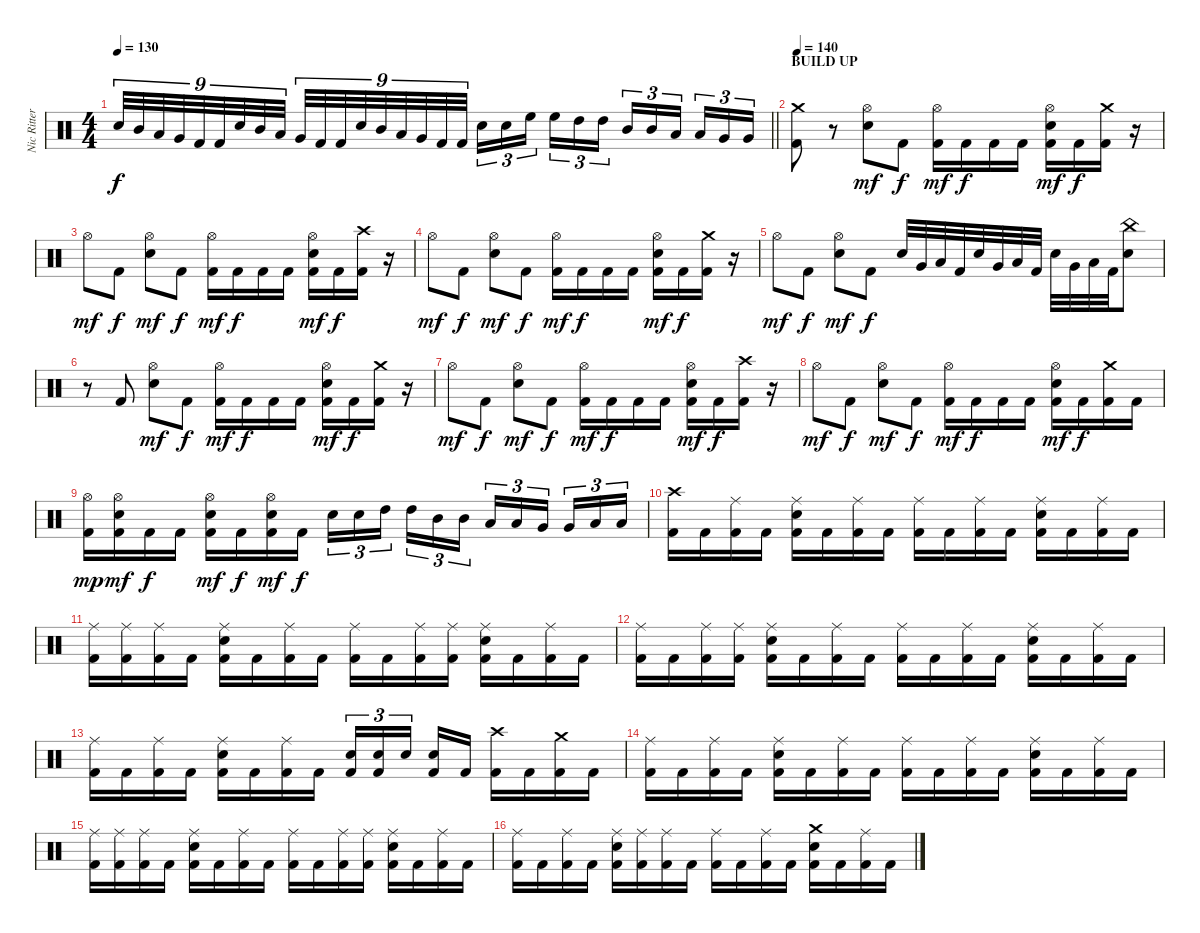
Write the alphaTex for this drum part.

\track ("Nic Ritter" "Nic Ritter") {instrument percussion}
\staff {score}
\articulation defaults
\ts (4 4)
\tempo 130
\clef neutral
\barLineRight lightlight
\ks c "Electric Snare (hit)".32{tu (9 8) dy f} "Mid Tom (hit)".32{tu (9 8)} "Low Tom (hit)".32{tu (9 8)} "Very Low Tom (hit)".32{tu (9 8)} "Kick (hit) 2".32{tu (9 8)} "Kick (hit) 2".32{tu (9 8)} "Electric Snare (hit)".32{tu (9 8)} "Mid Tom (hit)".32{tu (9 8)} "Low Tom (hit)".32{tu (9 8)} "Very Low Tom (hit)".32{tu (9 8)} "Kick (hit) 2".32{tu (9 8)} "Kick (hit) 2".32{tu (9 8)} "Electric Snare (hit)".32{tu (9 8)} "Mid Tom (hit)".32{tu (9 8)} "Low Tom (hit)".32{tu (9 8)} "Very Low Tom (hit)".32{tu (9 8)} "Kick (hit) 2".32{tu (9 8)} "Kick (hit) 2".32{tu (9 8)} "Electric Snare (hit)".16{tu (3 2)} "Electric Snare (hit)".16{tu (3 2)} "High Floor Tom (hit)".16{tu (3 2) beam splitsecondary} "High Floor Tom (hit)".16{tu (3 2)} "High Tom (hit)".16{tu (3 2)} "High Tom (hit)".16{tu (3 2)} "Mid Tom (hit)".16{tu (3 2)} "Mid Tom (hit)".16{tu (3 2)} "Low Tom (hit)".16{tu (3 2) beam splitsecondary} "Low Tom (hit)".16{tu (3 2)} "Very Low Tom (hit)".16{tu (3 2)} "Very Low Tom (hit)".16{tu (3 2)}
|
\section ("" "BUILD UP")
\tempo 140
("Crash medium (hit)" "Kick (hit) 2").8 r.8 ("Hi-Hat (open)" "Electric Snare (hit)").8{dy mf} "Kick (hit) 2".8{dy f} ("Hi-Hat (open)" "Kick (hit) 2").16{dy mf} "Kick (hit) 2".16{dy f} "Kick (hit) 2".16 "Kick (hit) 2".16 ("Hi-Hat (open)" "Electric Snare (hit)" "Kick (hit) 2").16{dy mf} "Kick (hit) 2".16{dy f} ("Crash medium (hit)" "Kick (hit) 2").16 r.16 |
"Hi-Hat (open)".8{dy mf} "Kick (hit) 2".8{dy f} ("Hi-Hat (open)" "Electric Snare (hit)").8{dy mf} "Kick (hit) 2".8{dy f} ("Hi-Hat (open)" "Kick (hit) 2").16{dy mf} "Kick (hit) 2".16{dy f} "Kick (hit) 2".16 "Kick (hit) 2".16 ("Hi-Hat (open)" "Electric Snare (hit)" "Kick (hit) 2").16{dy mf} "Kick (hit) 2".16{dy f} ("Crash high (hit)" "Kick (hit) 2").16 r.16 |
"Hi-Hat (open)".8{dy mf} "Kick (hit) 2".8{dy f} ("Hi-Hat (open)" "Electric Snare (hit)").8{dy mf} "Kick (hit) 2".8{dy f} ("Hi-Hat (open)" "Kick (hit) 2").16{dy mf} "Kick (hit) 2".16{dy f} "Kick (hit) 2".16 "Kick (hit) 2".16 ("Hi-Hat (open)" "Electric Snare (hit)" "Kick (hit) 2").16{dy mf} "Kick (hit) 2".16{dy f} ("Crash medium (hit)" "Kick (hit) 2").16 r.16 |
"Hi-Hat (open)".8{dy mf} "Kick (hit) 2".8{dy f} ("Hi-Hat (open)" "Electric Snare (hit)").8{dy mf} "Kick (hit) 2".8{dy f} "Electric Snare (hit)".32 "Very Low Tom (hit)".32 "Low Floor Tom (hit)".32 "Kick (hit) 2".32 "Electric Snare (hit)".32 "Very Low Tom (hit)".32 "Low Floor Tom (hit)".32 "Kick (hit) 2".32 "Electric Snare (hit)".32 "Very Low Tom (hit)".32 "Low Floor Tom (hit)".32 "Kick (hit) 2".32 ("China (hit)" "Electric Snare (hit)").8 |
r.8 "Kick (hit) 2".8 ("Hi-Hat (open)" "Electric Snare (hit)").8{dy mf} "Kick (hit) 2".8{dy f} ("Hi-Hat (open)" "Kick (hit) 2").16{dy mf} "Kick (hit) 2".16{dy f} "Kick (hit) 2".16 "Kick (hit) 2".16 ("Hi-Hat (open)" "Electric Snare (hit)" "Kick (hit) 2").16{dy mf} "Kick (hit) 2".16{dy f} ("Crash medium (hit)" "Kick (hit) 2").16 r.16 |
"Hi-Hat (open)".8{dy mf} "Kick (hit) 2".8{dy f} ("Hi-Hat (open)" "Electric Snare (hit)").8{dy mf} "Kick (hit) 2".8{dy f} ("Hi-Hat (open)" "Kick (hit) 2").16{dy mf} "Kick (hit) 2".16{dy f} "Kick (hit) 2".16 "Kick (hit) 2".16 ("Hi-Hat (open)" "Electric Snare (hit)" "Kick (hit) 2").16{dy mf} "Kick (hit) 2".16{dy f} ("Crash high (hit)" "Kick (hit) 2").16 r.16 |
"Hi-Hat (open)".8{dy mf} "Kick (hit) 2".8{dy f} ("Hi-Hat (open)" "Electric Snare (hit)").8{dy mf} "Kick (hit) 2".8{dy f} ("Hi-Hat (open)" "Kick (hit) 2").16{dy mf} "Kick (hit) 2".16{dy f} "Kick (hit) 2".16 "Kick (hit) 2".16 ("Hi-Hat (open)" "Electric Snare (hit)" "Kick (hit) 2").16{dy mf} "Kick (hit) 2".16{dy f} ("Crash medium (hit)" "Kick (hit) 2").16 "Kick (hit) 2".16 |
("Hi-Hat (open)" "Kick (hit) 2").16{dy mp} ("Hi-Hat (open)" "Electric Snare (hit)" "Kick (hit) 2").16{dy mf} "Kick (hit) 2".16{dy f} "Kick (hit) 2".16 ("Hi-Hat (open)" "Electric Snare (hit)" "Kick (hit) 2").16{dy mf} "Kick (hit) 2".16{dy f} ("Hi-Hat (open)" "Electric Snare (hit)" "Kick (hit) 2").16{dy mf} "Kick (hit) 2".16{dy f} "Electric Snare (hit)".16{tu (3 2)} "Electric Snare (hit)".16{tu (3 2)} "High Tom (hit)".16{tu (3 2) beam splitsecondary} "High Tom (hit)".16{tu (3 2)} "Mid Tom (hit)".16{tu (3 2)} "Mid Tom (hit)".16{tu (3 2)} "Low Tom (hit)".16{tu (3 2)} "Low Tom (hit)".16{tu (3 2)} "Very Low Tom (hit)".16{tu (3 2) beam splitsecondary} "Very Low Tom (hit)".16{tu (3 2)} "Low Floor Tom (hit)".16{tu (3 2)} "Low Floor Tom (hit)".16{tu (3 2)} |
("Crash high (hit)" "Kick (hit) 2").16 "Kick (hit) 2".16 ("Ride (middle)" "Kick (hit) 2").16 "Kick (hit) 2".16 ("Ride (middle)" "Electric Snare (hit)" "Kick (hit) 2").16 "Kick (hit) 2".16 ("Ride (middle)" "Kick (hit) 2").16 "Kick (hit) 2".16 ("Ride (middle)" "Kick (hit) 2").16 "Kick (hit) 2".16 ("Ride (middle)" "Kick (hit) 2").16 "Kick (hit) 2".16 ("Ride (middle)" "Electric Snare (hit)" "Kick (hit) 2").16 "Kick (hit) 2".16 ("Ride (middle)" "Kick (hit) 2").16 "Kick (hit) 2".16 |
("Ride (middle)" "Kick (hit) 2").16 ("Ride (middle)" "Kick (hit) 2").16 ("Ride (middle)" "Kick (hit) 2").16 "Kick (hit) 2".16 ("Ride (middle)" "Electric Snare (hit)" "Kick (hit) 2").16 "Kick (hit) 2".16 ("Ride (middle)" "Kick (hit) 2").16 "Kick (hit) 2".16 ("Ride (middle)" "Kick (hit) 2").16 "Kick (hit) 2".16 ("Ride (middle)" "Kick (hit) 2").16 ("Ride (middle)" "Kick (hit) 2").16 ("Ride (middle)" "Electric Snare (hit)" "Kick (hit) 2").16 "Kick (hit) 2".16 ("Ride (middle)" "Kick (hit) 2").16 "Kick (hit) 2".16 |
("Ride (middle)" "Kick (hit) 2").16 "Kick (hit) 2".16 ("Ride (middle)" "Kick (hit) 2").16 ("Ride (middle)" "Kick (hit) 2").16 ("Ride (middle)" "Electric Snare (hit)" "Kick (hit) 2").16 "Kick (hit) 2".16 ("Ride (middle)" "Kick (hit) 2").16 "Kick (hit) 2".16 ("Ride (middle)" "Kick (hit) 2").16 "Kick (hit) 2".16 ("Ride (middle)" "Kick (hit) 2").16 "Kick (hit) 2".16 ("Ride (middle)" "Electric Snare (hit)" "Kick (hit) 2").16 "Kick (hit) 2".16 ("Ride (middle)" "Kick (hit) 2").16 "Kick (hit) 2".16 |
("Ride (middle)" "Kick (hit) 2").16 "Kick (hit) 2".16 ("Ride (middle)" "Kick (hit) 2").16 "Kick (hit) 2".16 ("Ride (middle)" "Electric Snare (hit)" "Kick (hit) 2").16 "Kick (hit) 2".16 ("Ride (middle)" "Kick (hit) 2").16 "Kick (hit) 2".16 ("Electric Snare (hit)" "Kick (hit) 2").16{tu (3 2)} ("Electric Snare (hit)" "Kick (hit) 2").16{tu (3 2)} "Electric Snare (hit)".16{tu (3 2) beam splitsecondary} ("Electric Snare (hit)" "Kick (hit) 2").16 "Kick (hit) 2".16 ("Crash high (hit)" "Kick (hit) 2").16 "Kick (hit) 2".16 ("Crash medium (hit)" "Kick (hit) 2").16 "Kick (hit) 2".16 |
("Ride (middle)" "Kick (hit) 2").16 "Kick (hit) 2".16 ("Ride (middle)" "Kick (hit) 2").16 "Kick (hit) 2".16 ("Ride (middle)" "Electric Snare (hit)" "Kick (hit) 2").16 "Kick (hit) 2".16 ("Ride (middle)" "Kick (hit) 2").16 "Kick (hit) 2".16 ("Ride (middle)" "Kick (hit) 2").16 "Kick (hit) 2".16 ("Ride (middle)" "Kick (hit) 2").16 "Kick (hit) 2".16 ("Ride (middle)" "Electric Snare (hit)" "Kick (hit) 2").16 "Kick (hit) 2".16 ("Ride (middle)" "Kick (hit) 2").16 "Kick (hit) 2".16 |
("Ride (middle)" "Kick (hit) 2").16 ("Ride (middle)" "Kick (hit) 2").16 ("Ride (middle)" "Kick (hit) 2").16 "Kick (hit) 2".16 ("Ride (middle)" "Electric Snare (hit)" "Kick (hit) 2").16 "Kick (hit) 2".16 ("Ride (middle)" "Kick (hit) 2").16 "Kick (hit) 2".16 ("Ride (middle)" "Kick (hit) 2").16 "Kick (hit) 2".16 ("Ride (middle)" "Kick (hit) 2").16 ("Ride (middle)" "Kick (hit) 2").16 ("Ride (middle)" "Electric Snare (hit)" "Kick (hit) 2").16 "Kick (hit) 2".16 ("Ride (middle)" "Kick (hit) 2").16 "Kick (hit) 2".16 |
("Ride (middle)" "Kick (hit) 2").16 "Kick (hit) 2".16 ("Ride (middle)" "Kick (hit) 2").16 "Kick (hit) 2".16 ("Ride (middle)" "Electric Snare (hit)" "Kick (hit) 2").16 ("Ride (middle)" "Kick (hit) 2").16 ("Ride (middle)" "Kick (hit) 2").16 "Kick (hit) 2".16 ("Ride (middle)" "Kick (hit) 2").16 "Kick (hit) 2".16 ("Ride (middle)" "Kick (hit) 2").16 "Kick (hit) 2".16 ("Crash medium (hit)" "Electric Snare (hit)" "Kick (hit) 2").16 "Kick (hit) 2".16 ("Ride (middle)" "Kick (hit) 2").16 "Kick (hit) 2".16
